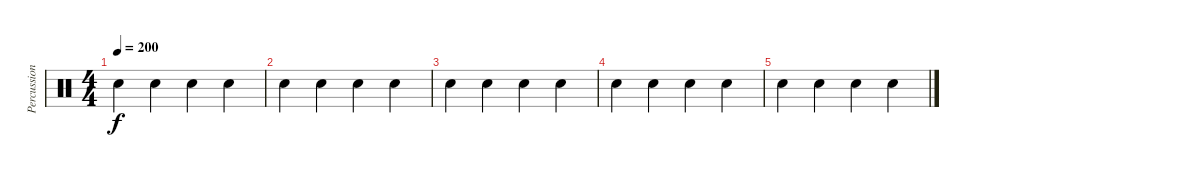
\track ("Percussion" "Percussion") {instrument percussion}
\staff {score}
\articulation defaults
\ts (4 4)
\tempo 200
\clef neutral
\ks c "Snare (hit) 2".4{dy f} "Snare (hit) 2".4 "Snare (hit) 2".4 "Snare (hit) 2".4
|
"Snare (hit) 2".4 "Snare (hit) 2".4 "Snare (hit) 2".4 "Snare (hit) 2".4 |
"Snare (hit) 2".4 "Snare (hit) 2".4 "Snare (hit) 2".4 "Snare (hit) 2".4 |
"Snare (hit) 2".4 "Snare (hit) 2".4 "Snare (hit) 2".4 "Snare (hit) 2".4 |
"Snare (hit) 2".4 "Snare (hit) 2".4 "Snare (hit) 2".4 "Snare (hit) 2".4
